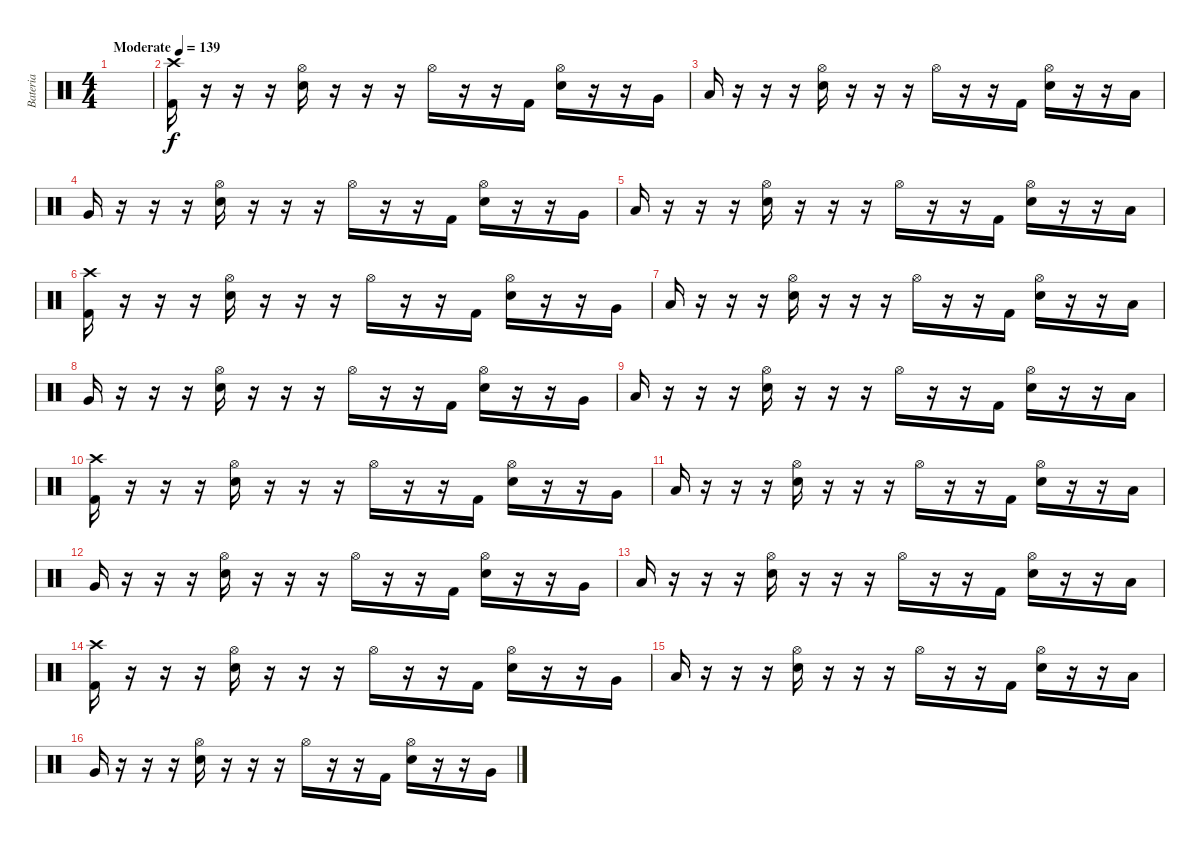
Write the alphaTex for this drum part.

\track ("Bateria" "Bateria") {instrument percussion}
\staff {score}
\articulation defaults
\ts (4 4)
\tempo (139 "Moderate")
\clef neutral
\ks c
|
("Crash high (hit)" "Kick (hit) 2").16 r.16 r.16 r.16 ("Hi-Hat (open)" "Electric Snare (hit)").16 r.16 r.16 r.16 "Hi-Hat (open)".16 r.16 r.16 "Kick (hit) 2".16 ("Hi-Hat (open)" "Electric Snare (hit)").16 r.16 r.16 "Very Low Tom (hit)".16 |
"Low Tom (hit)".16 r.16 r.16 r.16 ("Hi-Hat (open)" "Electric Snare (hit)").16 r.16 r.16 r.16 "Hi-Hat (open)".16 r.16 r.16 "Kick (hit) 2".16 ("Hi-Hat (open)" "Electric Snare (hit)").16 r.16 r.16 "Low Tom (hit)".16 |
"Very Low Tom (hit)".16 r.16 r.16 r.16 ("Hi-Hat (open)" "Electric Snare (hit)").16 r.16 r.16 r.16 "Hi-Hat (open)".16 r.16 r.16 "Kick (hit) 2".16 ("Hi-Hat (open)" "Electric Snare (hit)").16 r.16 r.16 "Very Low Tom (hit)".16 |
"Low Tom (hit)".16 r.16 r.16 r.16 ("Hi-Hat (open)" "Electric Snare (hit)").16 r.16 r.16 r.16 "Hi-Hat (open)".16 r.16 r.16 "Kick (hit) 2".16 ("Hi-Hat (open)" "Electric Snare (hit)").16 r.16 r.16 "Low Tom (hit)".16 |
("Crash high (hit)" "Kick (hit) 2").16 r.16 r.16 r.16 ("Hi-Hat (open)" "Electric Snare (hit)").16 r.16 r.16 r.16 "Hi-Hat (open)".16 r.16 r.16 "Kick (hit) 2".16 ("Hi-Hat (open)" "Electric Snare (hit)").16 r.16 r.16 "Very Low Tom (hit)".16 |
"Low Tom (hit)".16 r.16 r.16 r.16 ("Hi-Hat (open)" "Electric Snare (hit)").16 r.16 r.16 r.16 "Hi-Hat (open)".16 r.16 r.16 "Kick (hit) 2".16 ("Hi-Hat (open)" "Electric Snare (hit)").16 r.16 r.16 "Low Tom (hit)".16 |
"Very Low Tom (hit)".16 r.16 r.16 r.16 ("Hi-Hat (open)" "Electric Snare (hit)").16 r.16 r.16 r.16 "Hi-Hat (open)".16 r.16 r.16 "Kick (hit) 2".16 ("Hi-Hat (open)" "Electric Snare (hit)").16 r.16 r.16 "Very Low Tom (hit)".16 |
"Low Tom (hit)".16 r.16 r.16 r.16 ("Hi-Hat (open)" "Electric Snare (hit)").16 r.16 r.16 r.16 "Hi-Hat (open)".16 r.16 r.16 "Kick (hit) 2".16 ("Hi-Hat (open)" "Electric Snare (hit)").16 r.16 r.16 "Low Tom (hit)".16 |
("Crash high (hit)" "Kick (hit) 2").16 r.16 r.16 r.16 ("Hi-Hat (open)" "Electric Snare (hit)").16 r.16 r.16 r.16 "Hi-Hat (open)".16 r.16 r.16 "Kick (hit) 2".16 ("Hi-Hat (open)" "Electric Snare (hit)").16 r.16 r.16 "Very Low Tom (hit)".16 |
"Low Tom (hit)".16 r.16 r.16 r.16 ("Hi-Hat (open)" "Electric Snare (hit)").16 r.16 r.16 r.16 "Hi-Hat (open)".16 r.16 r.16 "Kick (hit) 2".16 ("Hi-Hat (open)" "Electric Snare (hit)").16 r.16 r.16 "Low Tom (hit)".16 |
"Very Low Tom (hit)".16 r.16 r.16 r.16 ("Hi-Hat (open)" "Electric Snare (hit)").16 r.16 r.16 r.16 "Hi-Hat (open)".16 r.16 r.16 "Kick (hit) 2".16 ("Hi-Hat (open)" "Electric Snare (hit)").16 r.16 r.16 "Very Low Tom (hit)".16 |
"Low Tom (hit)".16 r.16 r.16 r.16 ("Hi-Hat (open)" "Electric Snare (hit)").16 r.16 r.16 r.16 "Hi-Hat (open)".16 r.16 r.16 "Kick (hit) 2".16 ("Hi-Hat (open)" "Electric Snare (hit)").16 r.16 r.16 "Low Tom (hit)".16 |
("Crash high (hit)" "Kick (hit) 2").16 r.16 r.16 r.16 ("Hi-Hat (open)" "Electric Snare (hit)").16 r.16 r.16 r.16 "Hi-Hat (open)".16 r.16 r.16 "Kick (hit) 2".16 ("Hi-Hat (open)" "Electric Snare (hit)").16 r.16 r.16 "Very Low Tom (hit)".16 |
"Low Tom (hit)".16 r.16 r.16 r.16 ("Hi-Hat (open)" "Electric Snare (hit)").16 r.16 r.16 r.16 "Hi-Hat (open)".16 r.16 r.16 "Kick (hit) 2".16 ("Hi-Hat (open)" "Electric Snare (hit)").16 r.16 r.16 "Low Tom (hit)".16 |
"Very Low Tom (hit)".16 r.16 r.16 r.16 ("Hi-Hat (open)" "Electric Snare (hit)").16 r.16 r.16 r.16 "Hi-Hat (open)".16 r.16 r.16 "Kick (hit) 2".16 ("Hi-Hat (open)" "Electric Snare (hit)").16 r.16 r.16 "Very Low Tom (hit)".16
